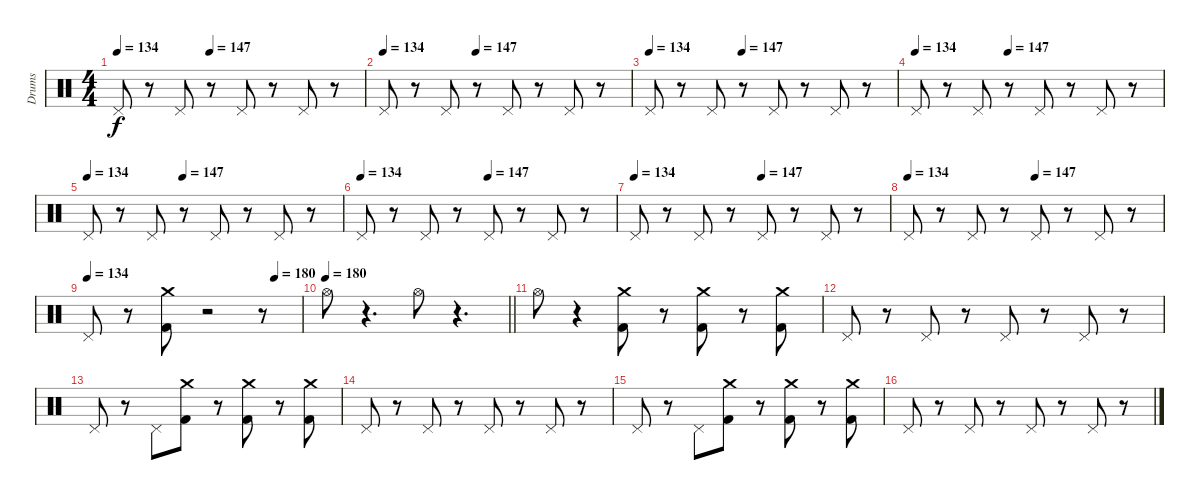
\track ("Drums" "Drums") {instrument percussion}
\staff {score}
\articulation defaults
\ts (4 4)
\tempo (147 0.375)
\tempo 134
\clef neutral
\ks c "Pedal Hi-Hat (hit)".8{dy f}
r.8 "Pedal Hi-Hat (hit)".8 r.8 "Pedal Hi-Hat (hit)".8 r.8 "Pedal Hi-Hat (hit)".8 r.8 |
\tempo (147 0.375)
\tempo (134)
"Pedal Hi-Hat (hit)".8 r.8 "Pedal Hi-Hat (hit)".8 r.8 "Pedal Hi-Hat (hit)".8 r.8 "Pedal Hi-Hat (hit)".8 r.8 |
\tempo (147 0.375)
\tempo (134)
"Pedal Hi-Hat (hit)".8 r.8 "Pedal Hi-Hat (hit)".8 r.8 "Pedal Hi-Hat (hit)".8 r.8 "Pedal Hi-Hat (hit)".8 r.8 |
\tempo (147 0.375)
\tempo (134)
"Pedal Hi-Hat (hit)".8 r.8 "Pedal Hi-Hat (hit)".8 r.8 "Pedal Hi-Hat (hit)".8 r.8 "Pedal Hi-Hat (hit)".8 r.8 |
\tempo (147 0.375)
\tempo (134)
"Pedal Hi-Hat (hit)".8 r.8 "Pedal Hi-Hat (hit)".8 r.8 "Pedal Hi-Hat (hit)".8 r.8 "Pedal Hi-Hat (hit)".8 r.8 |
\tempo (147 0.5)
\tempo (134)
"Pedal Hi-Hat (hit)".8 r.8 "Pedal Hi-Hat (hit)".8 r.8 "Pedal Hi-Hat (hit)".8 r.8 "Pedal Hi-Hat (hit)".8 r.8 |
\tempo (147 0.5)
\tempo (134)
"Pedal Hi-Hat (hit)".8 r.8 "Pedal Hi-Hat (hit)".8 r.8 "Pedal Hi-Hat (hit)".8 r.8 "Pedal Hi-Hat (hit)".8 r.8 |
\tempo (147 0.5)
\tempo (134)
"Pedal Hi-Hat (hit)".8 r.8 "Pedal Hi-Hat (hit)".8 r.8 "Pedal Hi-Hat (hit)".8 r.8 "Pedal Hi-Hat (hit)".8 r.8 |
\tempo (180 0.875)
\tempo (134)
"Pedal Hi-Hat (hit)".8 r.8 ("Crash medium (hit)" "Kick (hit) 2").8 r.2 r.8 |
\tempo 180
\barLineRight lightlight "Hi-Hat (open)".8
r.4{d} "Hi-Hat (open)".8 r.4{d} |
"Hi-Hat (open)".8 r.4 ("Crash medium (hit)" "Kick (hit) 2").8 r.8 ("Kick (hit) 2" "Crash medium (hit)").8 r.8 ("Kick (hit) 2" "Crash medium (hit)").8 |
"Pedal Hi-Hat (hit)".8 r.8 "Pedal Hi-Hat (hit)".8 r.8 "Pedal Hi-Hat (hit)".8 r.8 "Pedal Hi-Hat (hit)".8 r.8 |
"Pedal Hi-Hat (hit)".8 r.8 "Pedal Hi-Hat (hit)".8 ("Crash medium (hit)" "Kick (hit) 2").8 r.8 ("Kick (hit) 2" "Crash medium (hit)").8 r.8 ("Kick (hit) 2" "Crash medium (hit)").8 |
"Pedal Hi-Hat (hit)".8 r.8 "Pedal Hi-Hat (hit)".8 r.8 "Pedal Hi-Hat (hit)".8 r.8 "Pedal Hi-Hat (hit)".8 r.8 |
"Pedal Hi-Hat (hit)".8 r.8 "Pedal Hi-Hat (hit)".8 ("Crash medium (hit)" "Kick (hit) 2").8 r.8 ("Kick (hit) 2" "Crash medium (hit)").8 r.8 ("Kick (hit) 2" "Crash medium (hit)").8 |
"Pedal Hi-Hat (hit)".8 r.8 "Pedal Hi-Hat (hit)".8 r.8 "Pedal Hi-Hat (hit)".8 r.8 "Pedal Hi-Hat (hit)".8 r.8
